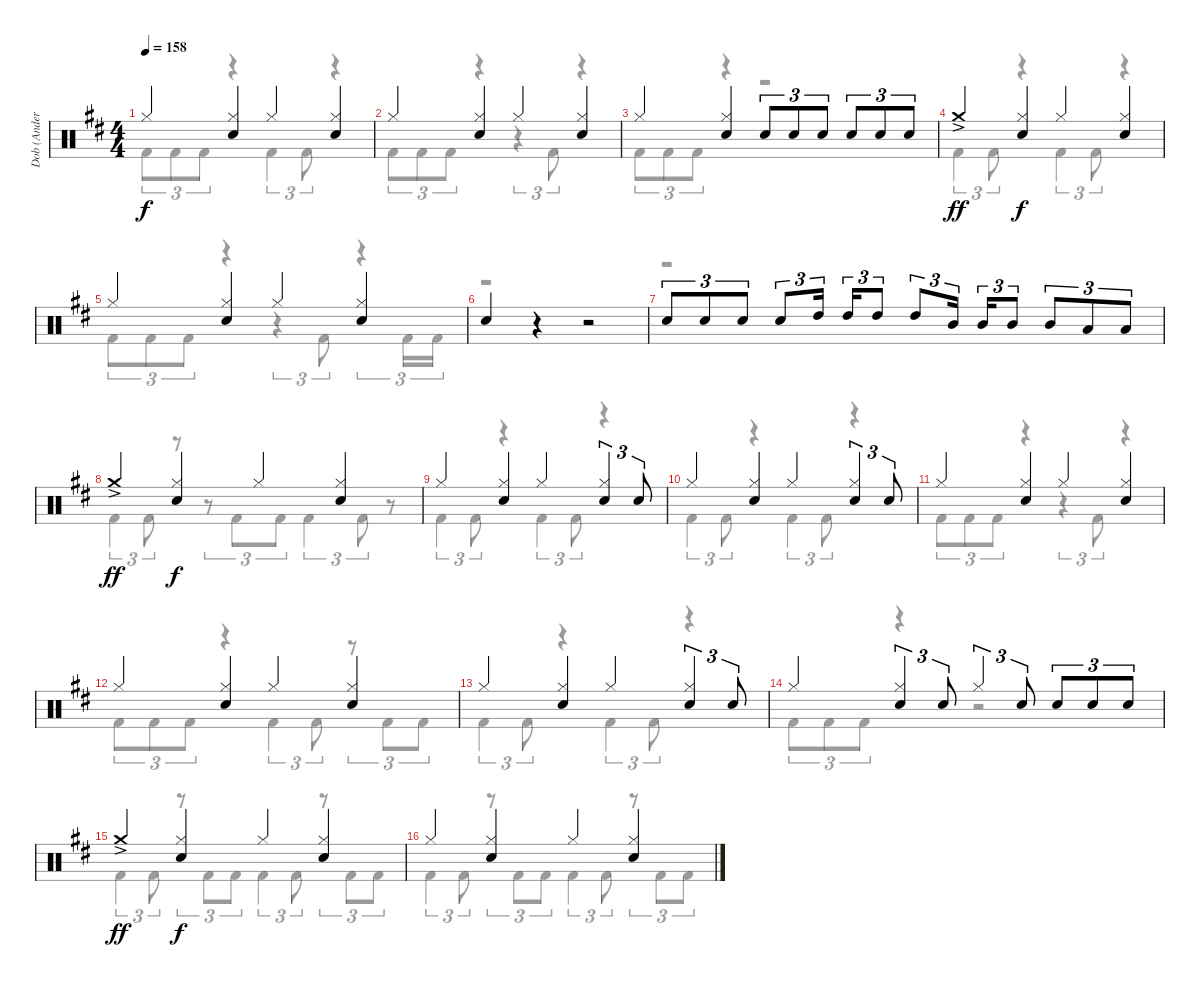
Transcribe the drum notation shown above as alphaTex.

\track ("Dob (Anders Johansson)" "Dob (Ander") {instrument percussion}
\staff {score}
\articulation defaults
\voice
\ts (4 4)
\tempo 158
\clef neutral
\ks d "Hi-Hat (closed)".4{dy f}
("Hi-Hat (closed)" "Electric Snare (hit)").4 "Hi-Hat (closed)".4 ("Hi-Hat (closed)" "Electric Snare (hit)").4 |
"Hi-Hat (closed)".4 ("Hi-Hat (closed)" "Electric Snare (hit)").4 "Hi-Hat (closed)".4 ("Hi-Hat (closed)" "Electric Snare (hit)").4 |
"Hi-Hat (closed)".4 ("Hi-Hat (closed)" "Electric Snare (hit)").4 "Electric Snare (hit)".8{tu (3 2)} "Electric Snare (hit)".8{tu (3 2)} "Electric Snare (hit)".8{tu (3 2)} "Electric Snare (hit)".8{tu (3 2)} "Electric Snare (hit)".8{tu (3 2)} "Electric Snare (hit)".8{tu (3 2)} |
"Crash medium (hit)"{ac}.4{dy ff} ("Hi-Hat (closed)" "Electric Snare (hit)").4{dy f} "Hi-Hat (closed)".4 ("Hi-Hat (closed)" "Electric Snare (hit)").4 |
"Hi-Hat (closed)".4 ("Hi-Hat (closed)" "Electric Snare (hit)").4 "Hi-Hat (closed)".4 ("Hi-Hat (closed)" "Electric Snare (hit)").4 |
"Electric Snare (hit)".4 r.4 r.2 |
"Electric Snare (hit)".8{tu (3 2)} "Electric Snare (hit)".8{tu (3 2)} "Electric Snare (hit)".8{tu (3 2)} "Electric Snare (hit)".8{tu (3 2)} "High Tom (hit)".16{tu (3 2)} "High Tom (hit)".16{tu (3 2)} "High Tom (hit)".8{tu (3 2)} "High Tom (hit)".8{tu (3 2)} "Mid Tom (hit)".16{tu (3 2)} "Mid Tom (hit)".16{tu (3 2)} "Mid Tom (hit)".8{tu (3 2)} "Mid Tom (hit)".8{tu (3 2)} "Low Tom (hit)".8{tu (3 2)} "Low Tom (hit)".8{tu (3 2)} |
"Crash medium (hit)"{ac}.4{dy ff} ("Hi-Hat (closed)" "Electric Snare (hit)").4{dy f} "Hi-Hat (closed)".4 ("Hi-Hat (closed)" "Electric Snare (hit)").4 |
"Hi-Hat (closed)".4 ("Hi-Hat (closed)" "Electric Snare (hit)").4 "Hi-Hat (closed)".4 ("Hi-Hat (closed)" "Electric Snare (hit)").4{tu (3 2)} "Electric Snare (hit)".8{tu (3 2)} |
"Hi-Hat (closed)".4 ("Hi-Hat (closed)" "Electric Snare (hit)").4 "Hi-Hat (closed)".4 ("Hi-Hat (closed)" "Electric Snare (hit)").4{tu (3 2)} "Electric Snare (hit)".8{tu (3 2)} |
"Hi-Hat (closed)".4 ("Hi-Hat (closed)" "Electric Snare (hit)").4 "Hi-Hat (closed)".4 ("Hi-Hat (closed)" "Electric Snare (hit)").4 |
"Hi-Hat (closed)".4 ("Hi-Hat (closed)" "Electric Snare (hit)").4 "Hi-Hat (closed)".4 ("Hi-Hat (closed)" "Electric Snare (hit)").4 |
"Hi-Hat (closed)".4 ("Hi-Hat (closed)" "Electric Snare (hit)").4 "Hi-Hat (closed)".4 ("Hi-Hat (closed)" "Electric Snare (hit)").4{tu (3 2)} "Electric Snare (hit)".8{tu (3 2)} |
"Hi-Hat (closed)".4 ("Hi-Hat (closed)" "Electric Snare (hit)").4{tu (3 2)} "Electric Snare (hit)".8{tu (3 2)} "Hi-Hat (closed)".4{tu (3 2)} "Electric Snare (hit)".8{tu (3 2)} "Electric Snare (hit)".8{tu (3 2)} "Electric Snare (hit)".8{tu (3 2)} "Electric Snare (hit)".8{tu (3 2)} |
"Crash medium (hit)"{ac}.4{dy ff} ("Hi-Hat (closed)" "Electric Snare (hit)").4{dy f} "Hi-Hat (closed)".4 ("Hi-Hat (closed)" "Electric Snare (hit)").4 |
"Hi-Hat (closed)".4 ("Hi-Hat (closed)" "Electric Snare (hit)").4 "Hi-Hat (closed)".4 ("Hi-Hat (closed)" "Electric Snare (hit)").4
\voice
\clef neutral
\ottava regular
\simile none
\ks d "Kick (hit) 2".8{tu (3 2) dy f} "Kick (hit) 2".8{tu (3 2)} "Kick (hit) 2".8{tu (3 2)}
r.4 "Kick (hit) 2".4{tu (3 2)} "Kick (hit) 2".8{tu (3 2)} r.4 |
"Kick (hit) 2".8{tu (3 2)} "Kick (hit) 2".8{tu (3 2)} "Kick (hit) 2".8{tu (3 2)} r.4 r.4{tu (3 2)} "Kick (hit) 2".8{tu (3 2)} r.4 |
"Kick (hit) 2".8{tu (3 2)} "Kick (hit) 2".8{tu (3 2)} "Kick (hit) 2".8{tu (3 2)} r.4 r.2 |
"Kick (hit) 2".4{tu (3 2)} "Kick (hit) 2".8{tu (3 2)} r.4 "Kick (hit) 2".4{tu (3 2)} "Kick (hit) 2".8{tu (3 2)} r.4 |
"Kick (hit) 2".8{tu (3 2)} "Kick (hit) 2".8{tu (3 2)} "Kick (hit) 2".8{tu (3 2)} r.4 r.4{tu (3 2)} "Kick (hit) 2".8{tu (3 2)} r.4{tu (3 2)} "Kick (hit) 2".16{tu (3 2)} "Kick (hit) 2".16{tu (3 2)} |
r.1 |
r.1 |
"Kick (hit) 2".4{tu (3 2)} "Kick (hit) 2".8{tu (3 2)} r.8 r.8{tu (3 2)} "Kick (hit) 2".8{tu (3 2)} "Kick (hit) 2".8{tu (3 2)} "Kick (hit) 2".4{tu (3 2)} "Kick (hit) 2".8{tu (3 2)} r.8 |
"Kick (hit) 2".4{tu (3 2)} "Kick (hit) 2".8{tu (3 2)} r.4 "Kick (hit) 2".4{tu (3 2)} "Kick (hit) 2".8{tu (3 2)} r.4 |
"Kick (hit) 2".4{tu (3 2)} "Kick (hit) 2".8{tu (3 2)} r.4 "Kick (hit) 2".4{tu (3 2)} "Kick (hit) 2".8{tu (3 2)} r.4 |
"Kick (hit) 2".8{tu (3 2)} "Kick (hit) 2".8{tu (3 2)} "Kick (hit) 2".8{tu (3 2)} r.4 r.4{tu (3 2)} "Kick (hit) 2".8{tu (3 2)} r.4 |
"Kick (hit) 2".8{tu (3 2)} "Kick (hit) 2".8{tu (3 2)} "Kick (hit) 2".8{tu (3 2)} r.4 "Kick (hit) 2".4{tu (3 2)} "Kick (hit) 2".8{tu (3 2)} r.8{tu (3 2)} "Kick (hit) 2".8{tu (3 2)} "Kick (hit) 2".8{tu (3 2)} |
"Kick (hit) 2".4{tu (3 2)} "Kick (hit) 2".8{tu (3 2)} r.4 "Kick (hit) 2".4{tu (3 2)} "Kick (hit) 2".8{tu (3 2)} r.4 |
"Kick (hit) 2".8{tu (3 2)} "Kick (hit) 2".8{tu (3 2)} "Kick (hit) 2".8{tu (3 2)} r.4 r.2 |
"Kick (hit) 2".4{tu (3 2)} "Kick (hit) 2".8{tu (3 2)} r.8{tu (3 2)} "Kick (hit) 2".8{tu (3 2)} "Kick (hit) 2".8{tu (3 2)} "Kick (hit) 2".4{tu (3 2)} "Kick (hit) 2".8{tu (3 2)} r.8{tu (3 2)} "Kick (hit) 2".8{tu (3 2)} "Kick (hit) 2".8{tu (3 2)} |
"Kick (hit) 2".4{tu (3 2)} "Kick (hit) 2".8{tu (3 2)} r.8{tu (3 2)} "Kick (hit) 2".8{tu (3 2)} "Kick (hit) 2".8{tu (3 2)} "Kick (hit) 2".4{tu (3 2)} "Kick (hit) 2".8{tu (3 2)} r.8{tu (3 2)} "Kick (hit) 2".8{tu (3 2)} "Kick (hit) 2".8{tu (3 2)}
